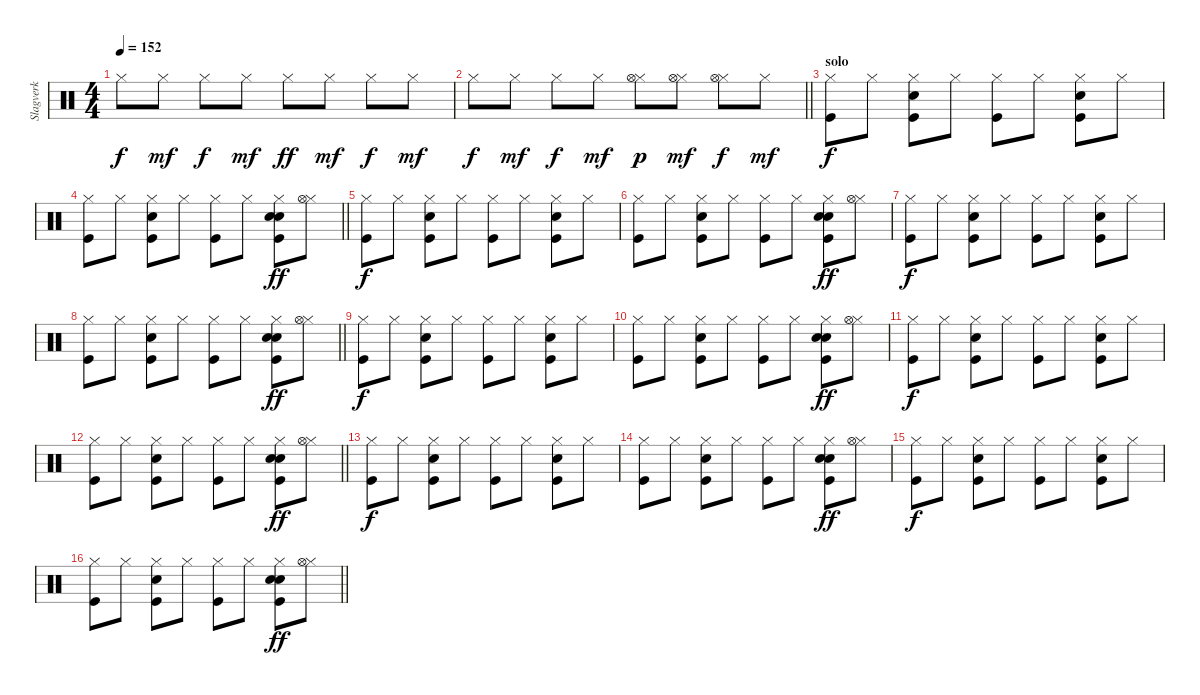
\track ("Slagverk" "Slagverk") {instrument percussion}
\staff {score}
\articulation defaults
\ts (4 4)
\tempo 152
\clef neutral
\ks c "Hi-Hat (closed)".8{dy f} "Hi-Hat (closed)".8{dy mf} "Hi-Hat (closed)".8{dy f} "Hi-Hat (closed)".8{dy mf} "Hi-Hat (closed)".8{dy ff} "Hi-Hat (closed)".8{dy mf} "Hi-Hat (closed)".8{dy f} "Hi-Hat (closed)".8{dy mf}
|
\barLineRight lightlight "Hi-Hat (closed)".8{dy f} "Hi-Hat (closed)".8{dy mf} "Hi-Hat (closed)".8{dy f} "Hi-Hat (closed)".8{dy mf}
("Hi-Hat (closed)" "Hi-Hat (open)").8{dy p} ("Hi-Hat (closed)" "Hi-Hat (open)").8{dy mf} ("Hi-Hat (closed)" "Hi-Hat (open)").8{dy f} "Hi-Hat (closed)".8{dy mf} |
\section ("" "solo")
("Kick (hit)" "Hi-Hat (closed)").8{dy f} "Hi-Hat (closed)".8 ("Kick (hit)" "Hi-Hat (closed)" "Snare (hit) 2").8 "Hi-Hat (closed)".8 ("Kick (hit)" "Hi-Hat (closed)").8 "Hi-Hat (closed)".8 ("Kick (hit)" "Hi-Hat (closed)" "Snare (hit) 2").8 "Hi-Hat (closed)".8 |
\barLineRight lightlight
("Kick (hit)" "Hi-Hat (closed)").8 "Hi-Hat (closed)".8 ("Kick (hit)" "Hi-Hat (closed)" "Snare (hit) 2").8 "Hi-Hat (closed)".8 ("Kick (hit)" "Hi-Hat (closed)").8 "Hi-Hat (closed)".8 ("Kick (hit)" "Hi-Hat (closed)" "Electric Snare (hit)" "Snare (hit) 2").8{dy ff} ("Hi-Hat (closed)" "Hi-Hat (open)").8 |
("Kick (hit)" "Hi-Hat (closed)").8{dy f} "Hi-Hat (closed)".8 ("Kick (hit)" "Hi-Hat (closed)" "Snare (hit) 2").8 "Hi-Hat (closed)".8 ("Kick (hit)" "Hi-Hat (closed)").8 "Hi-Hat (closed)".8 ("Kick (hit)" "Hi-Hat (closed)" "Snare (hit) 2").8 "Hi-Hat (closed)".8 |
("Kick (hit)" "Hi-Hat (closed)").8 "Hi-Hat (closed)".8 ("Kick (hit)" "Hi-Hat (closed)" "Snare (hit) 2").8 "Hi-Hat (closed)".8 ("Kick (hit)" "Hi-Hat (closed)").8 "Hi-Hat (closed)".8 ("Kick (hit)" "Hi-Hat (closed)" "Electric Snare (hit)" "Snare (hit) 2").8{dy ff} ("Hi-Hat (closed)" "Hi-Hat (open)").8 |
("Kick (hit)" "Hi-Hat (closed)").8{dy f} "Hi-Hat (closed)".8 ("Kick (hit)" "Hi-Hat (closed)" "Snare (hit) 2").8 "Hi-Hat (closed)".8 ("Kick (hit)" "Hi-Hat (closed)").8 "Hi-Hat (closed)".8 ("Kick (hit)" "Hi-Hat (closed)" "Snare (hit) 2").8 "Hi-Hat (closed)".8 |
\barLineRight lightlight
("Kick (hit)" "Hi-Hat (closed)").8 "Hi-Hat (closed)".8 ("Kick (hit)" "Hi-Hat (closed)" "Snare (hit) 2").8 "Hi-Hat (closed)".8 ("Kick (hit)" "Hi-Hat (closed)").8 "Hi-Hat (closed)".8 ("Kick (hit)" "Hi-Hat (closed)" "Electric Snare (hit)" "Snare (hit) 2").8{dy ff} ("Hi-Hat (closed)" "Hi-Hat (open)").8 |
("Kick (hit)" "Hi-Hat (closed)").8{dy f} "Hi-Hat (closed)".8 ("Kick (hit)" "Hi-Hat (closed)" "Snare (hit) 2").8 "Hi-Hat (closed)".8 ("Kick (hit)" "Hi-Hat (closed)").8 "Hi-Hat (closed)".8 ("Kick (hit)" "Hi-Hat (closed)" "Snare (hit) 2").8 "Hi-Hat (closed)".8 |
("Kick (hit)" "Hi-Hat (closed)").8 "Hi-Hat (closed)".8 ("Kick (hit)" "Hi-Hat (closed)" "Snare (hit) 2").8 "Hi-Hat (closed)".8 ("Kick (hit)" "Hi-Hat (closed)").8 "Hi-Hat (closed)".8 ("Kick (hit)" "Hi-Hat (closed)" "Electric Snare (hit)" "Snare (hit) 2").8{dy ff} ("Hi-Hat (closed)" "Hi-Hat (open)").8 |
("Kick (hit)" "Hi-Hat (closed)").8{dy f} "Hi-Hat (closed)".8 ("Kick (hit)" "Hi-Hat (closed)" "Snare (hit) 2").8 "Hi-Hat (closed)".8 ("Kick (hit)" "Hi-Hat (closed)").8 "Hi-Hat (closed)".8 ("Kick (hit)" "Hi-Hat (closed)" "Snare (hit) 2").8 "Hi-Hat (closed)".8 |
\barLineRight lightlight
("Kick (hit)" "Hi-Hat (closed)").8 "Hi-Hat (closed)".8 ("Kick (hit)" "Hi-Hat (closed)" "Snare (hit) 2").8 "Hi-Hat (closed)".8 ("Kick (hit)" "Hi-Hat (closed)").8 "Hi-Hat (closed)".8 ("Kick (hit)" "Hi-Hat (closed)" "Electric Snare (hit)" "Snare (hit) 2").8{dy ff} ("Hi-Hat (closed)" "Hi-Hat (open)").8 |
("Kick (hit)" "Hi-Hat (closed)").8{dy f} "Hi-Hat (closed)".8 ("Kick (hit)" "Hi-Hat (closed)" "Snare (hit) 2").8 "Hi-Hat (closed)".8 ("Kick (hit)" "Hi-Hat (closed)").8 "Hi-Hat (closed)".8 ("Kick (hit)" "Hi-Hat (closed)" "Snare (hit) 2").8 "Hi-Hat (closed)".8 |
("Kick (hit)" "Hi-Hat (closed)").8 "Hi-Hat (closed)".8 ("Kick (hit)" "Hi-Hat (closed)" "Snare (hit) 2").8 "Hi-Hat (closed)".8 ("Kick (hit)" "Hi-Hat (closed)").8 "Hi-Hat (closed)".8 ("Kick (hit)" "Hi-Hat (closed)" "Electric Snare (hit)" "Snare (hit) 2").8{dy ff} ("Hi-Hat (closed)" "Hi-Hat (open)").8 |
("Kick (hit)" "Hi-Hat (closed)").8{dy f} "Hi-Hat (closed)".8 ("Kick (hit)" "Hi-Hat (closed)" "Snare (hit) 2").8 "Hi-Hat (closed)".8 ("Kick (hit)" "Hi-Hat (closed)").8 "Hi-Hat (closed)".8 ("Kick (hit)" "Hi-Hat (closed)" "Snare (hit) 2").8 "Hi-Hat (closed)".8 |
\barLineRight lightlight
("Kick (hit)" "Hi-Hat (closed)").8 "Hi-Hat (closed)".8 ("Kick (hit)" "Hi-Hat (closed)" "Snare (hit) 2").8 "Hi-Hat (closed)".8 ("Kick (hit)" "Hi-Hat (closed)").8 "Hi-Hat (closed)".8 ("Kick (hit)" "Hi-Hat (closed)" "Electric Snare (hit)" "Snare (hit) 2").8{dy ff} ("Hi-Hat (closed)" "Hi-Hat (open)").8
